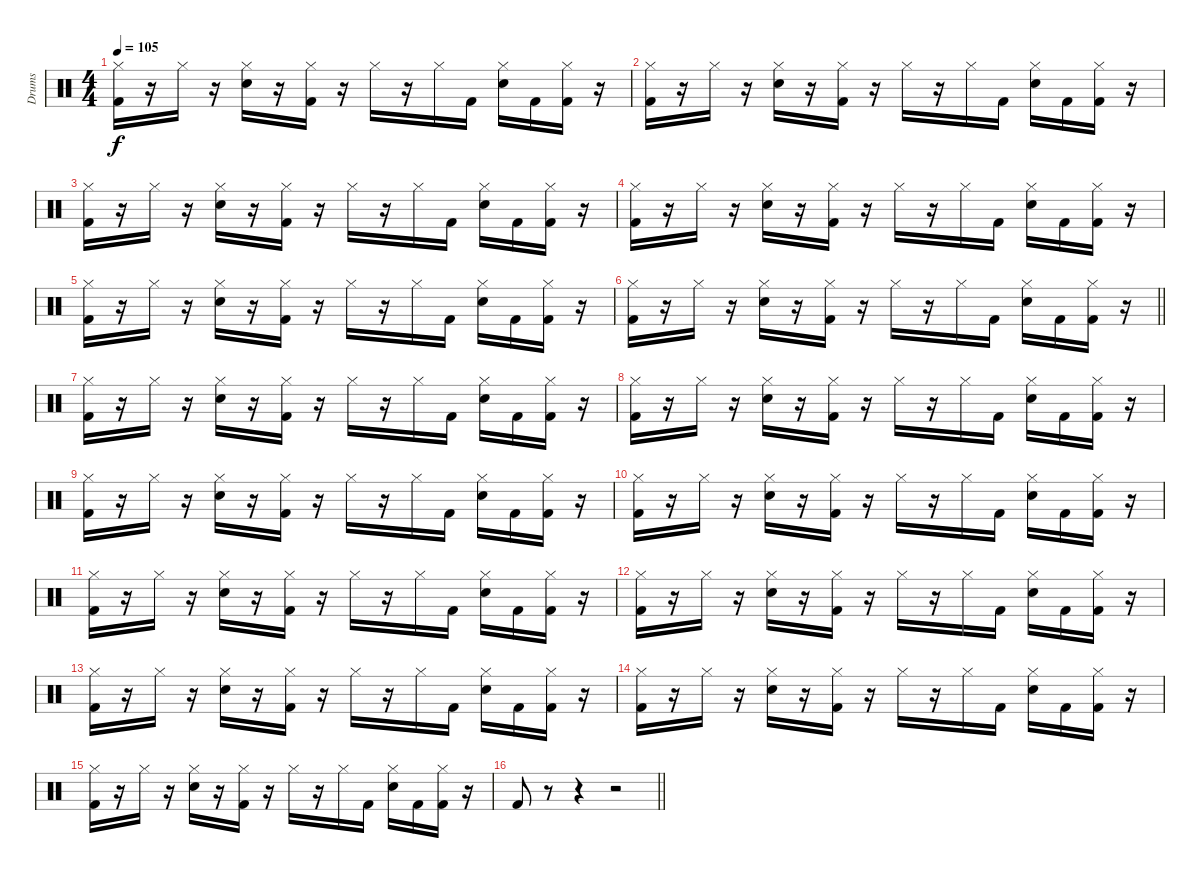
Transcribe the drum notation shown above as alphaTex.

\track ("Drums" "Drums") {instrument percussion}
\staff {score}
\articulation defaults
\ts (4 4)
\tempo 105
\clef neutral
\ks c
("Hi-Hat (closed)" "Kick (hit) 2").16{dy f} r.16 "Hi-Hat (closed)".16 r.16 ("Hi-Hat (closed)" "Electric Snare (hit)").16 r.16 ("Hi-Hat (closed)" "Kick (hit) 2").16 r.16 "Hi-Hat (closed)".16 r.16 "Hi-Hat (closed)".16 "Kick (hit) 2".16 ("Hi-Hat (closed)" "Electric Snare (hit)").16 "Kick (hit) 2".16 ("Hi-Hat (closed)" "Kick (hit) 2").16 r.16 |
("Hi-Hat (closed)" "Kick (hit) 2").16 r.16 "Hi-Hat (closed)".16 r.16 ("Hi-Hat (closed)" "Electric Snare (hit)").16 r.16 ("Hi-Hat (closed)" "Kick (hit) 2").16 r.16 "Hi-Hat (closed)".16 r.16 "Hi-Hat (closed)".16 "Kick (hit) 2".16 ("Hi-Hat (closed)" "Electric Snare (hit)").16 "Kick (hit) 2".16 ("Hi-Hat (closed)" "Kick (hit) 2").16 r.16 |
("Hi-Hat (closed)" "Kick (hit) 2").16 r.16 "Hi-Hat (closed)".16 r.16 ("Hi-Hat (closed)" "Electric Snare (hit)").16 r.16 ("Hi-Hat (closed)" "Kick (hit) 2").16 r.16 "Hi-Hat (closed)".16 r.16 "Hi-Hat (closed)".16 "Kick (hit) 2".16 ("Hi-Hat (closed)" "Electric Snare (hit)").16 "Kick (hit) 2".16 ("Hi-Hat (closed)" "Kick (hit) 2").16 r.16 |
("Hi-Hat (closed)" "Kick (hit) 2").16 r.16 "Hi-Hat (closed)".16 r.16 ("Hi-Hat (closed)" "Electric Snare (hit)").16 r.16 ("Hi-Hat (closed)" "Kick (hit) 2").16 r.16 "Hi-Hat (closed)".16 r.16 "Hi-Hat (closed)".16 "Kick (hit) 2".16 ("Hi-Hat (closed)" "Electric Snare (hit)").16 "Kick (hit) 2".16 ("Hi-Hat (closed)" "Kick (hit) 2").16 r.16 |
("Hi-Hat (closed)" "Kick (hit) 2").16 r.16 "Hi-Hat (closed)".16 r.16 ("Hi-Hat (closed)" "Electric Snare (hit)").16 r.16 ("Hi-Hat (closed)" "Kick (hit) 2").16 r.16 "Hi-Hat (closed)".16 r.16 "Hi-Hat (closed)".16 "Kick (hit) 2".16 ("Hi-Hat (closed)" "Electric Snare (hit)").16 "Kick (hit) 2".16 ("Hi-Hat (closed)" "Kick (hit) 2").16 r.16 |
\barLineRight lightlight
("Hi-Hat (closed)" "Kick (hit) 2").16 r.16 "Hi-Hat (closed)".16 r.16 ("Hi-Hat (closed)" "Electric Snare (hit)").16 r.16 ("Hi-Hat (closed)" "Kick (hit) 2").16 r.16 "Hi-Hat (closed)".16 r.16 "Hi-Hat (closed)".16 "Kick (hit) 2".16 ("Hi-Hat (closed)" "Electric Snare (hit)").16 "Kick (hit) 2".16 ("Hi-Hat (closed)" "Kick (hit) 2").16 r.16 |
("Hi-Hat (closed)" "Kick (hit) 2").16 r.16 "Hi-Hat (closed)".16 r.16 ("Hi-Hat (closed)" "Electric Snare (hit)").16 r.16 ("Hi-Hat (closed)" "Kick (hit) 2").16 r.16 "Hi-Hat (closed)".16 r.16 "Hi-Hat (closed)".16 "Kick (hit) 2".16 ("Hi-Hat (closed)" "Electric Snare (hit)").16 "Kick (hit) 2".16 ("Hi-Hat (closed)" "Kick (hit) 2").16 r.16 |
("Hi-Hat (closed)" "Kick (hit) 2").16 r.16 "Hi-Hat (closed)".16 r.16 ("Hi-Hat (closed)" "Electric Snare (hit)").16 r.16 ("Hi-Hat (closed)" "Kick (hit) 2").16 r.16 "Hi-Hat (closed)".16 r.16 "Hi-Hat (closed)".16 "Kick (hit) 2".16 ("Hi-Hat (closed)" "Electric Snare (hit)").16 "Kick (hit) 2".16 ("Hi-Hat (closed)" "Kick (hit) 2").16 r.16 |
("Hi-Hat (closed)" "Kick (hit) 2").16 r.16 "Hi-Hat (closed)".16 r.16 ("Hi-Hat (closed)" "Electric Snare (hit)").16 r.16 ("Hi-Hat (closed)" "Kick (hit) 2").16 r.16 "Hi-Hat (closed)".16 r.16 "Hi-Hat (closed)".16 "Kick (hit) 2".16 ("Hi-Hat (closed)" "Electric Snare (hit)").16 "Kick (hit) 2".16 ("Hi-Hat (closed)" "Kick (hit) 2").16 r.16 |
("Hi-Hat (closed)" "Kick (hit) 2").16 r.16 "Hi-Hat (closed)".16 r.16 ("Hi-Hat (closed)" "Electric Snare (hit)").16 r.16 ("Hi-Hat (closed)" "Kick (hit) 2").16 r.16 "Hi-Hat (closed)".16 r.16 "Hi-Hat (closed)".16 "Kick (hit) 2".16 ("Hi-Hat (closed)" "Electric Snare (hit)").16 "Kick (hit) 2".16 ("Hi-Hat (closed)" "Kick (hit) 2").16 r.16 |
("Hi-Hat (closed)" "Kick (hit) 2").16 r.16 "Hi-Hat (closed)".16 r.16 ("Hi-Hat (closed)" "Electric Snare (hit)").16 r.16 ("Hi-Hat (closed)" "Kick (hit) 2").16 r.16 "Hi-Hat (closed)".16 r.16 "Hi-Hat (closed)".16 "Kick (hit) 2".16 ("Hi-Hat (closed)" "Electric Snare (hit)").16 "Kick (hit) 2".16 ("Hi-Hat (closed)" "Kick (hit) 2").16 r.16 |
("Hi-Hat (closed)" "Kick (hit) 2").16 r.16 "Hi-Hat (closed)".16 r.16 ("Hi-Hat (closed)" "Electric Snare (hit)").16 r.16 ("Hi-Hat (closed)" "Kick (hit) 2").16 r.16 "Hi-Hat (closed)".16 r.16 "Hi-Hat (closed)".16 "Kick (hit) 2".16 ("Hi-Hat (closed)" "Electric Snare (hit)").16 "Kick (hit) 2".16 ("Hi-Hat (closed)" "Kick (hit) 2").16 r.16 |
("Hi-Hat (closed)" "Kick (hit) 2").16 r.16 "Hi-Hat (closed)".16 r.16 ("Hi-Hat (closed)" "Electric Snare (hit)").16 r.16 ("Hi-Hat (closed)" "Kick (hit) 2").16 r.16 "Hi-Hat (closed)".16 r.16 "Hi-Hat (closed)".16 "Kick (hit) 2".16 ("Hi-Hat (closed)" "Electric Snare (hit)").16 "Kick (hit) 2".16 ("Hi-Hat (closed)" "Kick (hit) 2").16 r.16 |
("Hi-Hat (closed)" "Kick (hit) 2").16 r.16 "Hi-Hat (closed)".16 r.16 ("Hi-Hat (closed)" "Electric Snare (hit)").16 r.16 ("Hi-Hat (closed)" "Kick (hit) 2").16 r.16 "Hi-Hat (closed)".16 r.16 "Hi-Hat (closed)".16 "Kick (hit) 2".16 ("Hi-Hat (closed)" "Electric Snare (hit)").16 "Kick (hit) 2".16 ("Hi-Hat (closed)" "Kick (hit) 2").16 r.16 |
("Hi-Hat (closed)" "Kick (hit) 2").16 r.16 "Hi-Hat (closed)".16 r.16 ("Hi-Hat (closed)" "Electric Snare (hit)").16 r.16 ("Hi-Hat (closed)" "Kick (hit) 2").16 r.16 "Hi-Hat (closed)".16 r.16 "Hi-Hat (closed)".16 "Kick (hit) 2".16 ("Hi-Hat (closed)" "Electric Snare (hit)").16 "Kick (hit) 2".16 ("Hi-Hat (closed)" "Kick (hit) 2").16 r.16 |
\barLineRight lightlight "Kick (hit) 2".8
r.8 r.4 r.2
